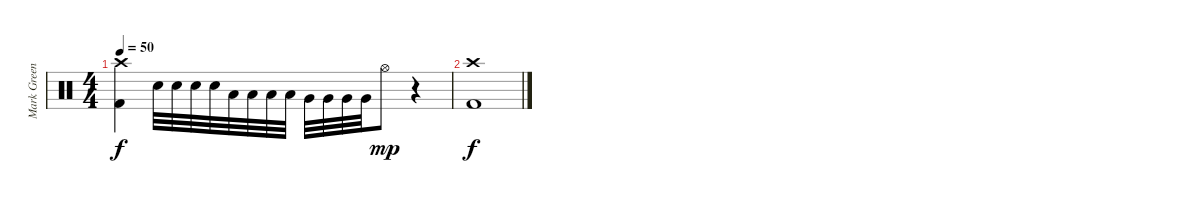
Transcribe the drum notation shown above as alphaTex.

\track ("Mark Greening" "Mark Green") {instrument percussion}
\staff {score}
\articulation defaults
\ts (4 4)
\tempo 50
\clef neutral
\ks c
("Crash high (hit)" "Kick (hit) 2").4{dy f} "Snare (hit) 2".32 "Snare (hit) 2".32 "Snare (hit) 2".32 "Snare (hit) 2".32 "Low Tom (hit)".32 "Low Tom (hit)".32 "Low Tom (hit)".32 "Low Tom (hit)".32 "Very Low Tom (hit)".32 "Very Low Tom (hit)".32 "Very Low Tom (hit)".32 "Very Low Tom (hit)".32 "Hi-Hat (open)".8{dy mp} r.4 |
("Crash high (hit)" "Kick (hit) 2").1{dy f}
